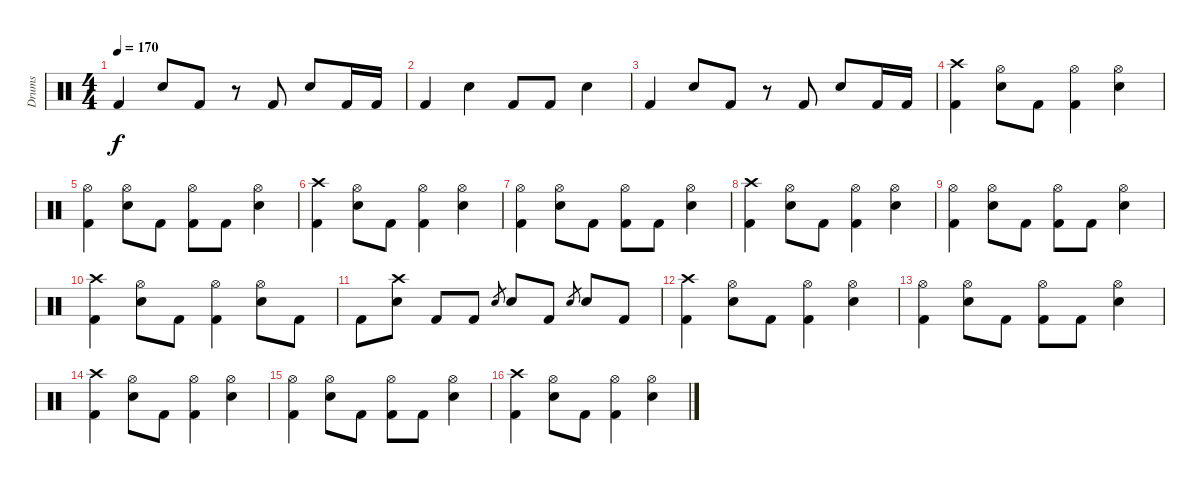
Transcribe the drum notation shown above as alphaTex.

\track ("Drums" "Drums") {instrument percussion}
\staff {score}
\articulation defaults
\ts (4 4)
\tempo 170
\clef neutral
\ks c "Kick (hit) 2".4{dy f} "Electric Snare (hit)".8 "Kick (hit) 2".8
r.8 "Kick (hit) 2".8 "Electric Snare (hit)".8 "Kick (hit) 2".16 "Kick (hit) 2".16 |
"Kick (hit) 2".4 "Electric Snare (hit)".4 "Kick (hit) 2".8 "Kick (hit) 2".8 "Electric Snare (hit)".4 |
"Kick (hit) 2".4 "Electric Snare (hit)".8 "Kick (hit) 2".8 r.8 "Kick (hit) 2".8 "Electric Snare (hit)".8 "Kick (hit) 2".16 "Kick (hit) 2".16 |
("Crash high (hit)" "Kick (hit) 2").4 ("Hi-Hat (open)" "Electric Snare (hit)").8 "Kick (hit) 2".8 ("Hi-Hat (open)" "Kick (hit) 2").4 ("Hi-Hat (open)" "Electric Snare (hit)").4 |
("Hi-Hat (open)" "Kick (hit) 2").4 ("Hi-Hat (open)" "Electric Snare (hit)").8 "Kick (hit) 2".8 ("Hi-Hat (open)" "Kick (hit) 2").8 "Kick (hit) 2".8 ("Hi-Hat (open)" "Electric Snare (hit)").4 |
("Crash high (hit)" "Kick (hit) 2").4 ("Hi-Hat (open)" "Electric Snare (hit)").8 "Kick (hit) 2".8 ("Hi-Hat (open)" "Kick (hit) 2").4 ("Hi-Hat (open)" "Electric Snare (hit)").4 |
("Hi-Hat (open)" "Kick (hit) 2").4 ("Hi-Hat (open)" "Electric Snare (hit)").8 "Kick (hit) 2".8 ("Hi-Hat (open)" "Kick (hit) 2").8 "Kick (hit) 2".8 ("Hi-Hat (open)" "Electric Snare (hit)").4 |
("Crash high (hit)" "Kick (hit) 2").4 ("Hi-Hat (open)" "Electric Snare (hit)").8 "Kick (hit) 2".8 ("Hi-Hat (open)" "Kick (hit) 2").4 ("Hi-Hat (open)" "Electric Snare (hit)").4 |
("Hi-Hat (open)" "Kick (hit) 2").4 ("Hi-Hat (open)" "Electric Snare (hit)").8 "Kick (hit) 2".8 ("Hi-Hat (open)" "Kick (hit) 2").8 "Kick (hit) 2".8 ("Hi-Hat (open)" "Electric Snare (hit)").4 |
("Crash high (hit)" "Kick (hit) 2").4 ("Hi-Hat (open)" "Electric Snare (hit)").8 "Kick (hit) 2".8 ("Hi-Hat (open)" "Kick (hit) 2").4 ("Hi-Hat (open)" "Electric Snare (hit)").8 "Kick (hit) 2".8 |
"Kick (hit) 2".8 ("Crash high (hit)" "Electric Snare (hit)").8 "Kick (hit) 2".8 "Kick (hit) 2".8 "Electric Snare (hit)".8{gr} "Electric Snare (hit)".8 "Kick (hit) 2".8 "Electric Snare (hit)".8{gr} "Electric Snare (hit)".8 "Kick (hit) 2".8 |
("Crash high (hit)" "Kick (hit) 2").4 ("Hi-Hat (open)" "Electric Snare (hit)").8 "Kick (hit) 2".8 ("Hi-Hat (open)" "Kick (hit) 2").4 ("Hi-Hat (open)" "Electric Snare (hit)").4 |
("Hi-Hat (open)" "Kick (hit) 2").4 ("Hi-Hat (open)" "Electric Snare (hit)").8 "Kick (hit) 2".8 ("Hi-Hat (open)" "Kick (hit) 2").8 "Kick (hit) 2".8 ("Hi-Hat (open)" "Electric Snare (hit)").4 |
("Crash high (hit)" "Kick (hit) 2").4 ("Hi-Hat (open)" "Electric Snare (hit)").8 "Kick (hit) 2".8 ("Hi-Hat (open)" "Kick (hit) 2").4 ("Hi-Hat (open)" "Electric Snare (hit)").4 |
("Hi-Hat (open)" "Kick (hit) 2").4 ("Hi-Hat (open)" "Electric Snare (hit)").8 "Kick (hit) 2".8 ("Hi-Hat (open)" "Kick (hit) 2").8 "Kick (hit) 2".8 ("Hi-Hat (open)" "Electric Snare (hit)").4 |
("Crash high (hit)" "Kick (hit) 2").4 ("Hi-Hat (open)" "Electric Snare (hit)").8 "Kick (hit) 2".8 ("Hi-Hat (open)" "Kick (hit) 2").4 ("Hi-Hat (open)" "Electric Snare (hit)").4
